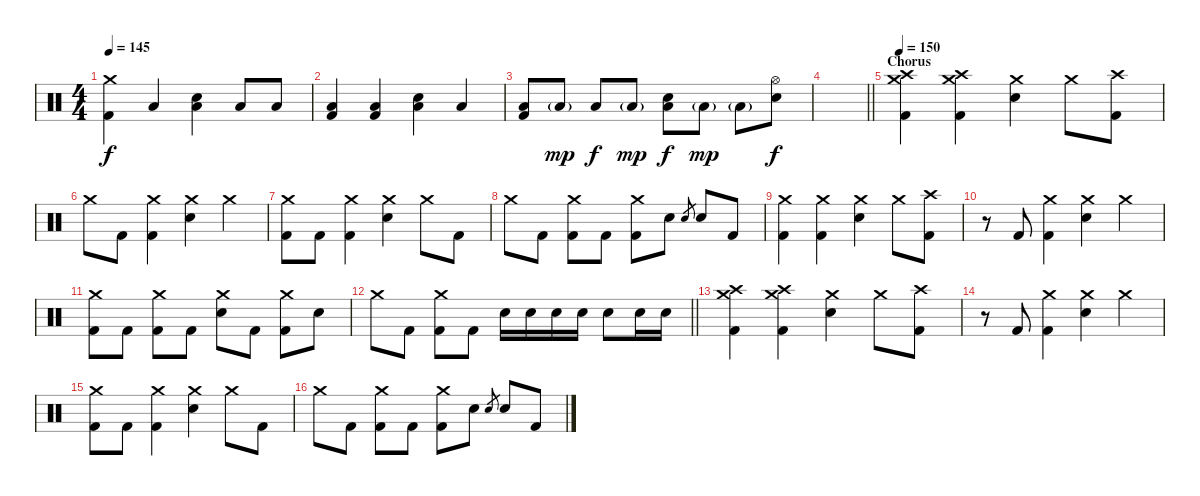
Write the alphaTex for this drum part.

\track "" {instrument percussion}
\staff {score}
\articulation defaults
\ts (4 4)
\tempo 145
\clef neutral
\ks c
("Crash medium (hit)" "Kick (hit) 2").4{dy f} "Low Floor Tom (hit)".4 ("Low Floor Tom (hit)" "Electric Snare (hit)").4 "Low Floor Tom (hit)".8 "Low Tom (hit)".8 |
("Low Floor Tom (hit)" "Kick (hit) 2").4 ("Low Floor Tom (hit)" "Kick (hit) 2").4 ("Low Floor Tom (hit)" "Electric Snare (hit)").4 "Low Floor Tom (hit)".4 |
("Low Floor Tom (hit)" "Kick (hit) 2").8 "Low Floor Tom (hit)"{g}.8{dy mp} "Low Floor Tom (hit)".8{dy f} "Low Floor Tom (hit)"{g}.8{dy mp} ("Low Floor Tom (hit)" "Electric Snare (hit)").8{dy f} "Low Floor Tom (hit)"{g}.8{dy mp} "Low Floor Tom (hit)"{g}.8 ("Hi-Hat (open)" "Electric Snare (hit)").8{dy f} |
\barLineRight lightlight
|
\section ("" "Chorus")
\tempo 150
("Crash medium (hit)" "Crash high (hit)" "Kick (hit) 2").4 ("Crash medium (hit)" "Crash high (hit)" "Kick (hit) 2").4 ("Crash medium (hit)" "Electric Snare (hit)").4 "Crash medium (hit)".8 ("Crash high (hit)" "Kick (hit) 2").8 |
"Crash medium (hit)".8 "Kick (hit) 2".8 ("Crash medium (hit)" "Kick (hit) 2").4 ("Crash medium (hit)" "Electric Snare (hit)").4 "Crash medium (hit)".4 |
("Crash medium (hit)" "Kick (hit) 2").8 "Kick (hit) 2".8 ("Crash medium (hit)" "Kick (hit) 2").4 ("Crash medium (hit)" "Electric Snare (hit)").4 "Crash medium (hit)".8 "Kick (hit) 2".8 |
"Crash medium (hit)".8 "Kick (hit) 2".8 ("Crash medium (hit)" "Kick (hit) 2").8 "Kick (hit) 2".8 ("Crash medium (hit)" "Kick (hit) 2").8 "Electric Snare (hit)".8 "Electric Snare (hit)".8{gr} "Electric Snare (hit)".8 "Kick (hit) 2".8 |
("Crash medium (hit)" "Kick (hit) 2").4 ("Crash medium (hit)" "Kick (hit) 2").4 ("Crash medium (hit)" "Electric Snare (hit)").4 "Crash medium (hit)".8 ("Crash high (hit)" "Kick (hit) 2").8 |
r.8 "Kick (hit) 2".8 ("Crash medium (hit)" "Kick (hit) 2").4 ("Crash medium (hit)" "Electric Snare (hit)").4 "Crash medium (hit)".4 |
("Crash medium (hit)" "Kick (hit) 2").8 "Kick (hit) 2".8 ("Crash medium (hit)" "Kick (hit) 2").8 "Kick (hit) 2".8 ("Crash medium (hit)" "Electric Snare (hit)").8 "Kick (hit) 2".8 ("Crash medium (hit)" "Kick (hit) 2").8 "Electric Snare (hit)".8 |
\barLineRight lightlight "Crash medium (hit)".8 "Kick (hit) 2".8
("Crash medium (hit)" "Kick (hit) 2").8 "Kick (hit) 2".8 "Electric Snare (hit)".16 "Electric Snare (hit)".16 "Electric Snare (hit)".16 "Electric Snare (hit)".16 "Electric Snare (hit)".8 "Electric Snare (hit)".16 "Electric Snare (hit)".16 |
("Crash medium (hit)" "Crash high (hit)" "Kick (hit) 2").4 ("Crash medium (hit)" "Crash high (hit)" "Kick (hit) 2").4 ("Crash medium (hit)" "Electric Snare (hit)").4 "Crash medium (hit)".8 ("Crash high (hit)" "Kick (hit) 2").8 |
r.8 "Kick (hit) 2".8 ("Crash medium (hit)" "Kick (hit) 2").4 ("Crash medium (hit)" "Electric Snare (hit)").4 "Crash medium (hit)".4 |
("Crash medium (hit)" "Kick (hit) 2").8 "Kick (hit) 2".8 ("Crash medium (hit)" "Kick (hit) 2").4 ("Crash medium (hit)" "Electric Snare (hit)").4 "Crash medium (hit)".8 "Kick (hit) 2".8 |
"Crash medium (hit)".8 "Kick (hit) 2".8 ("Crash medium (hit)" "Kick (hit) 2").8 "Kick (hit) 2".8 ("Crash medium (hit)" "Kick (hit) 2").8 "Electric Snare (hit)".8 "Electric Snare (hit)".8{gr} "Electric Snare (hit)".8 "Kick (hit) 2".8
